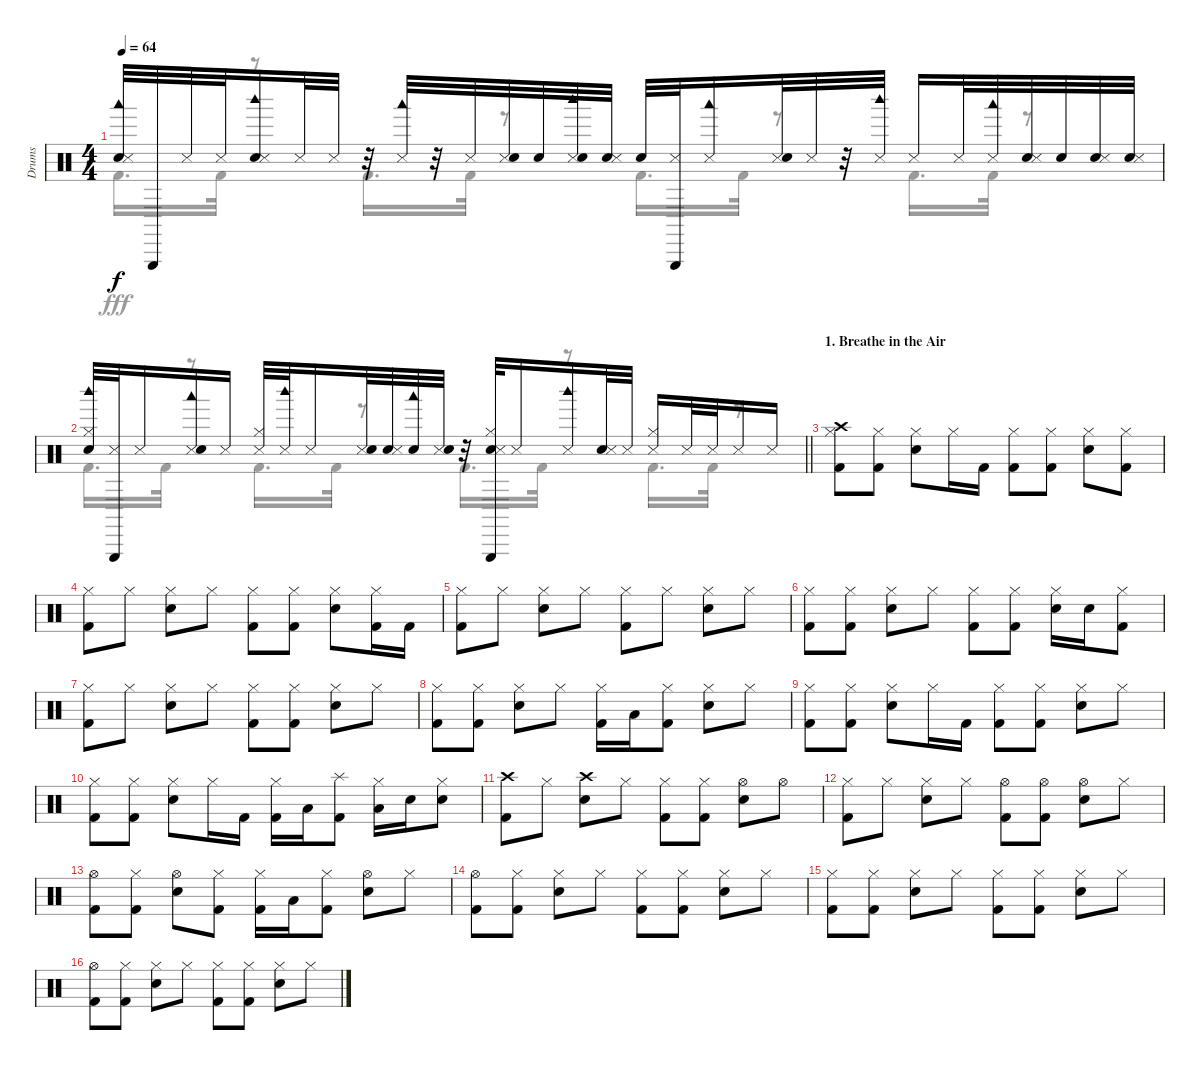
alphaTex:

\track ("Drums" "Drums") {instrument percussion}
\staff {score}
\articulation defaults
\voice
\ts (4 4)
\tempo 64
\clef neutral
\ks c
("Metronome (bell)" "Snare (side stick) 3" "Woodblock low (hit)").32{dy f} "Triangle (hit)".32 "Metronome (hit)".32 "Snare (side stick) 3".32 ("Electric Snare (hit)" "Metronome (hit)" "Woodblock high (hit)").16 "Snare (side stick) 3".32 "Metronome (hit)".32 r.32 ("Snare (side stick) 3" "Woodblock low (hit)").32 r.32 "Metronome (hit)".32 ("Snare (side stick) 3" "Snare (hit) 2").32 "Snare (hit) 2".32 ("Metronome (hit)" "Woodblock high (hit)" "Snare (hit) 2").32 ("Snare (hit) 2" "Snare (side stick) 3").32 "Metronome (bell)".32 ("Metronome (hit)" "Triangle (hit)").32 ("Woodblock low (hit)" "Snare (side stick) 3").16 ("Metronome (hit)" "Electric Snare (hit)").32 "Snare (side stick) 3".32 r.32 ("Metronome (hit)" "Woodblock high (hit)").32 "Snare (side stick) 3".16 "Metronome (hit)".32 ("Snare (side stick) 3" "Woodblock low (hit)").32 ("Snare (hit) 2" "Metronome (hit)").32 "Snare (hit) 2".32 ("Snare (hit) 2" "Snare (side stick) 3").32 ("Snare (hit) 2" "Metronome (hit)").32 |
\barLineRight lightlight
("Woodblock high (hit)" "Metronome (bell)" "Hi-Hat (closed)").32 ("Snare (side stick) 3" "Triangle (hit)").32 "Metronome (hit)".16 ("Snare (side stick) 3" "Electric Snare (hit)" "Woodblock low (hit)").16 "Metronome (hit)".16 ("Snare (side stick) 3" "Hi-Hat (closed)").32 ("Woodblock high (hit)" "Metronome (hit)").32 "Snare (side stick) 3".16 ("Metronome (hit)" "Snare (hit) 2").32 ("Snare (hit) 2" "Snare (side stick) 3").32 ("Woodblock low (hit)" "Snare (hit) 2").32 ("Metronome (hit)" "Snare (hit) 2").32 r.32 ("Metronome (bell)" "Snare (side stick) 3" "Triangle (hit)" "Hi-Hat (closed)").32 "Metronome (hit)".16 ("Woodblock high (hit)" "Snare (side stick) 3").16 ("Electric Snare (hit)" "Metronome (hit)").32 "Snare (side stick) 3".32 ("Metronome (hit)" "Hi-Hat (closed)").16 "Snare (side stick) 3".32 "Metronome (hit)".32 "Snare (side stick) 3".16 "Metronome (hit)".16 |
\section ("" "1. Breathe in the Air")
("Hi-Hat (closed)" "Kick (hit) 2" "Crash high (hit)").8{volume 10} ("Hi-Hat (closed)" "Kick (hit) 2").8 ("Hi-Hat (closed)" "Electric Snare (hit)").8 "Hi-Hat (closed)".16 "Kick (hit) 2".16 ("Hi-Hat (closed)" "Kick (hit) 2").8 ("Hi-Hat (closed)" "Kick (hit) 2").8 ("Hi-Hat (closed)" "Electric Snare (hit)").8 ("Hi-Hat (closed)" "Kick (hit) 2").8 |
("Hi-Hat (closed)" "Kick (hit) 2").8 "Hi-Hat (closed)".8 ("Hi-Hat (closed)" "Electric Snare (hit)").8 "Hi-Hat (closed)".8 ("Hi-Hat (closed)" "Kick (hit) 2").8 ("Hi-Hat (closed)" "Kick (hit) 2").8 ("Hi-Hat (closed)" "Electric Snare (hit)").8 ("Hi-Hat (closed)" "Kick (hit) 2").16 "Kick (hit) 2".16 |
("Hi-Hat (closed)" "Kick (hit) 2").8 "Hi-Hat (closed)".8 ("Hi-Hat (closed)" "Electric Snare (hit)").8 "Hi-Hat (closed)".8 ("Hi-Hat (closed)" "Kick (hit) 2").8 "Hi-Hat (closed)".8 ("Hi-Hat (closed)" "Electric Snare (hit)").8 "Hi-Hat (closed)".8 |
("Hi-Hat (closed)" "Kick (hit) 2").8 ("Hi-Hat (closed)" "Kick (hit) 2").8 ("Hi-Hat (closed)" "Electric Snare (hit)").8 "Hi-Hat (closed)".8 ("Hi-Hat (closed)" "Kick (hit) 2").8 ("Hi-Hat (closed)" "Kick (hit) 2").8 ("Hi-Hat (closed)" "Electric Snare (hit)").16 "Electric Snare (hit)".16 ("Hi-Hat (closed)" "Kick (hit) 2").8 |
("Hi-Hat (closed)" "Kick (hit) 2").8 "Hi-Hat (closed)".8 ("Hi-Hat (closed)" "Electric Snare (hit)").8 "Hi-Hat (closed)".8 ("Hi-Hat (closed)" "Kick (hit) 2").8 ("Hi-Hat (closed)" "Kick (hit) 2").8 ("Hi-Hat (closed)" "Electric Snare (hit)").8 "Hi-Hat (closed)".8 |
("Hi-Hat (closed)" "Kick (hit) 2").8 ("Hi-Hat (closed)" "Kick (hit) 2").8 ("Hi-Hat (closed)" "Electric Snare (hit)").8 "Hi-Hat (closed)".8 ("Hi-Hat (closed)" "Kick (hit) 2").16 "Low Tom (hit)".16 ("Hi-Hat (closed)" "Kick (hit) 2").8 ("Hi-Hat (closed)" "Electric Snare (hit)").8 "Hi-Hat (closed)".8 |
("Hi-Hat (closed)" "Kick (hit) 2").8 ("Hi-Hat (closed)" "Kick (hit) 2").8 ("Hi-Hat (closed)" "Electric Snare (hit)").8 "Hi-Hat (closed)".16 "Kick (hit) 2".16 ("Hi-Hat (closed)" "Kick (hit) 2").8 ("Hi-Hat (closed)" "Kick (hit) 2").8 ("Hi-Hat (closed)" "Electric Snare (hit)").8 "Hi-Hat (closed)".8 |
("Hi-Hat (closed)" "Kick (hit) 2").8 ("Hi-Hat (closed)" "Kick (hit) 2").8 ("Hi-Hat (closed)" "Electric Snare (hit)").8 "Hi-Hat (closed)".16 "Kick (hit) 2".16 ("Hi-Hat (closed)" "Kick (hit) 2").16 "Low Tom (hit)".16 ("Splash (hit)" "Kick (hit) 2").8 ("Hi-Hat (closed)" "Low Tom (hit)").16 "Electric Snare (hit)".16 ("Hi-Hat (closed)" "Electric Snare (hit)").8 |
("Crash high (hit)" "Kick (hit) 2").8 "Hi-Hat (closed)".8 ("Crash high (hit)" "Electric Snare (hit)").8 "Hi-Hat (closed)".8 ("Hi-Hat (closed)" "Kick (hit) 2").8 ("Hi-Hat (closed)" "Kick (hit) 2").8 ("Hi-Hat (open)" "Electric Snare (hit)").8 "Hi-Hat (open)".8 |
("Hi-Hat (closed)" "Kick (hit) 2").8 "Hi-Hat (closed)".8 ("Hi-Hat (closed)" "Electric Snare (hit)").8 "Hi-Hat (closed)".8 ("Hi-Hat (open)" "Kick (hit) 2").8 ("Hi-Hat (open)" "Kick (hit) 2").8 ("Hi-Hat (open)" "Electric Snare (hit)").8 "Hi-Hat (closed)".8 |
("Hi-Hat (open)" "Kick (hit) 2").8 ("Hi-Hat (closed)" "Kick (hit) 2").8 ("Hi-Hat (open)" "Electric Snare (hit)").8 ("Hi-Hat (closed)" "Kick (hit) 2").8 ("Hi-Hat (closed)" "Kick (hit) 2").16 "Low Tom (hit)".16 ("Hi-Hat (closed)" "Kick (hit) 2").8 ("Hi-Hat (open)" "Electric Snare (hit)").8 "Hi-Hat (closed)".8 |
("Hi-Hat (open)" "Kick (hit) 2").8 ("Hi-Hat (closed)" "Kick (hit) 2").8 ("Hi-Hat (closed)" "Electric Snare (hit)").8 "Hi-Hat (closed)".8 ("Hi-Hat (closed)" "Kick (hit) 2").8 ("Hi-Hat (closed)" "Kick (hit) 2").8 ("Hi-Hat (closed)" "Electric Snare (hit)").8 "Hi-Hat (closed)".8 |
("Hi-Hat (closed)" "Kick (hit) 2").8 ("Hi-Hat (closed)" "Kick (hit) 2").8 ("Hi-Hat (closed)" "Electric Snare (hit)").8 "Hi-Hat (closed)".8 ("Hi-Hat (closed)" "Kick (hit) 2").8 ("Hi-Hat (closed)" "Kick (hit) 2").8 ("Hi-Hat (closed)" "Electric Snare (hit)").8 "Hi-Hat (closed)".8 |
("Hi-Hat (open)" "Kick (hit) 2").8 ("Hi-Hat (closed)" "Kick (hit) 2").8 ("Hi-Hat (closed)" "Electric Snare (hit)").8 "Hi-Hat (closed)".8 ("Hi-Hat (closed)" "Kick (hit) 2").8 ("Hi-Hat (closed)" "Kick (hit) 2").8 ("Hi-Hat (closed)" "Electric Snare (hit)").8 "Hi-Hat (closed)".8
\voice
\clef neutral
\ottava regular
\simile none
\ks c "Kick (hit) 2".16{d dy fff} "Kick (hit) 2".32
r.8 "Kick (hit) 2".16{d} "Kick (hit) 2".32 r.8 "Kick (hit) 2".16{d} "Kick (hit) 2".32 r.8 "Kick (hit) 2".16{d} "Kick (hit) 2".32 r.8 |
\barLineRight lightlight "Kick (hit) 2".16{d} "Kick (hit) 2".32
r.8 "Kick (hit) 2".16{d} "Kick (hit) 2".32 r.8 "Kick (hit) 2".16{d} "Kick (hit) 2".32 r.8 "Kick (hit) 2".16{d} "Kick (hit) 2".32 r.8 |
|
|
|
|
|
|
|
|
|
|
|
|
|
